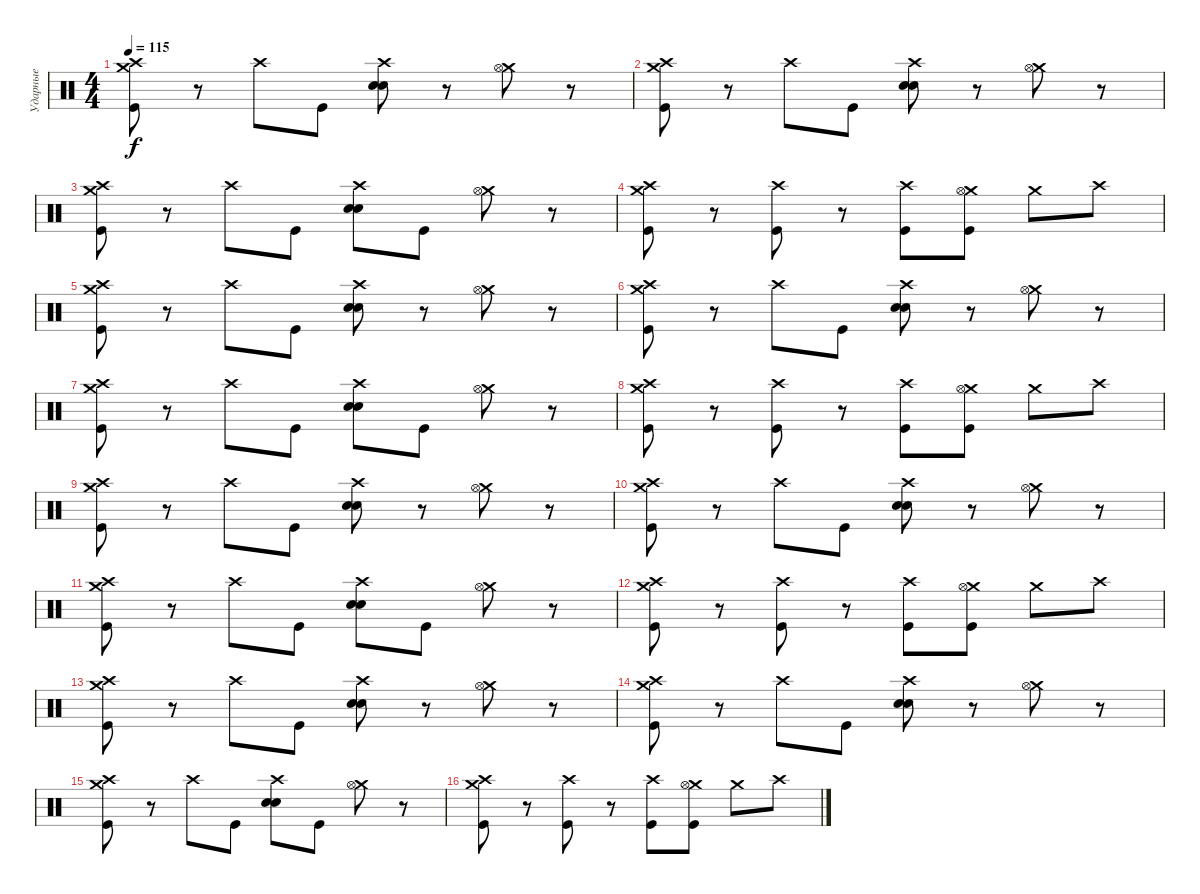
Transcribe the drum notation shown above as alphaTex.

\track ("Ударные" "Ударные") {instrument percussion}
\staff {score}
\articulation defaults
\ts (4 4)
\tempo 115
\clef neutral
\ks c
("Crash high (hit)" "Crash medium (hit)" "Kick (hit)").8{dy f} r.8 "Crash high (hit)".8 "Kick (hit)".8 ("Crash high (hit)" "Snare (hit) 2" "Snare (hit) 2").8 r.8 ("Crash medium (hit)" "Hi-Hat (open)").8 r.8 |
("Crash high (hit)" "Crash medium (hit)" "Kick (hit)").8 r.8 "Crash high (hit)".8 "Kick (hit)".8 ("Crash high (hit)" "Snare (hit) 2" "Snare (hit) 2").8 r.8 ("Crash medium (hit)" "Hi-Hat (open)").8 r.8 |
("Crash high (hit)" "Crash medium (hit)" "Kick (hit)").8 r.8 "Crash high (hit)".8 "Kick (hit)".8 ("Crash high (hit)" "Snare (hit) 2" "Snare (hit) 2").8 "Kick (hit)".8 ("Crash medium (hit)" "Hi-Hat (open)").8 r.8 |
("Crash high (hit)" "Crash medium (hit)" "Kick (hit)").8 r.8 ("Crash high (hit)" "Kick (hit)").8 r.8 ("Crash high (hit)" "Kick (hit)").8 ("Crash medium (hit)" "Hi-Hat (open)" "Kick (hit)").8 "Crash medium (hit)".8 "Crash high (hit)".8 |
("Crash high (hit)" "Crash medium (hit)" "Kick (hit)").8 r.8 "Crash high (hit)".8 "Kick (hit)".8 ("Crash high (hit)" "Snare (hit) 2" "Snare (hit) 2").8 r.8 ("Crash medium (hit)" "Hi-Hat (open)").8 r.8 |
("Crash high (hit)" "Crash medium (hit)" "Kick (hit)").8 r.8 "Crash high (hit)".8 "Kick (hit)".8 ("Crash high (hit)" "Snare (hit) 2" "Snare (hit) 2").8 r.8 ("Crash medium (hit)" "Hi-Hat (open)").8 r.8 |
("Crash high (hit)" "Crash medium (hit)" "Kick (hit)").8 r.8 "Crash high (hit)".8 "Kick (hit)".8 ("Crash high (hit)" "Snare (hit) 2" "Snare (hit) 2").8 "Kick (hit)".8 ("Crash medium (hit)" "Hi-Hat (open)").8 r.8 |
("Crash high (hit)" "Crash medium (hit)" "Kick (hit)").8 r.8 ("Crash high (hit)" "Kick (hit)").8 r.8 ("Crash high (hit)" "Kick (hit)").8 ("Crash medium (hit)" "Hi-Hat (open)" "Kick (hit)").8 "Crash medium (hit)".8 "Crash high (hit)".8 |
("Crash high (hit)" "Crash medium (hit)" "Kick (hit)").8 r.8 "Crash high (hit)".8 "Kick (hit)".8 ("Crash high (hit)" "Snare (hit) 2" "Snare (hit) 2").8 r.8 ("Crash medium (hit)" "Hi-Hat (open)").8 r.8 |
("Crash high (hit)" "Crash medium (hit)" "Kick (hit)").8 r.8 "Crash high (hit)".8 "Kick (hit)".8 ("Crash high (hit)" "Snare (hit) 2" "Snare (hit) 2").8 r.8 ("Crash medium (hit)" "Hi-Hat (open)").8 r.8 |
("Crash high (hit)" "Crash medium (hit)" "Kick (hit)").8 r.8 "Crash high (hit)".8 "Kick (hit)".8 ("Crash high (hit)" "Snare (hit) 2" "Snare (hit) 2").8 "Kick (hit)".8 ("Crash medium (hit)" "Hi-Hat (open)").8 r.8 |
("Crash high (hit)" "Crash medium (hit)" "Kick (hit)").8 r.8 ("Crash high (hit)" "Kick (hit)").8 r.8 ("Crash high (hit)" "Kick (hit)").8 ("Crash medium (hit)" "Hi-Hat (open)" "Kick (hit)").8 "Crash medium (hit)".8 "Crash high (hit)".8 |
("Crash high (hit)" "Crash medium (hit)" "Kick (hit)").8 r.8 "Crash high (hit)".8 "Kick (hit)".8 ("Crash high (hit)" "Snare (hit) 2" "Snare (hit) 2").8 r.8 ("Crash medium (hit)" "Hi-Hat (open)").8 r.8 |
("Crash high (hit)" "Crash medium (hit)" "Kick (hit)").8 r.8 "Crash high (hit)".8 "Kick (hit)".8 ("Crash high (hit)" "Snare (hit) 2" "Snare (hit) 2").8 r.8 ("Crash medium (hit)" "Hi-Hat (open)").8 r.8 |
("Crash high (hit)" "Crash medium (hit)" "Kick (hit)").8 r.8 "Crash high (hit)".8 "Kick (hit)".8 ("Crash high (hit)" "Snare (hit) 2" "Snare (hit) 2").8 "Kick (hit)".8 ("Crash medium (hit)" "Hi-Hat (open)").8 r.8 |
("Crash high (hit)" "Crash medium (hit)" "Kick (hit)").8 r.8 ("Crash high (hit)" "Kick (hit)").8 r.8 ("Crash high (hit)" "Kick (hit)").8 ("Crash medium (hit)" "Hi-Hat (open)" "Kick (hit)").8 "Crash medium (hit)".8 "Crash high (hit)".8
